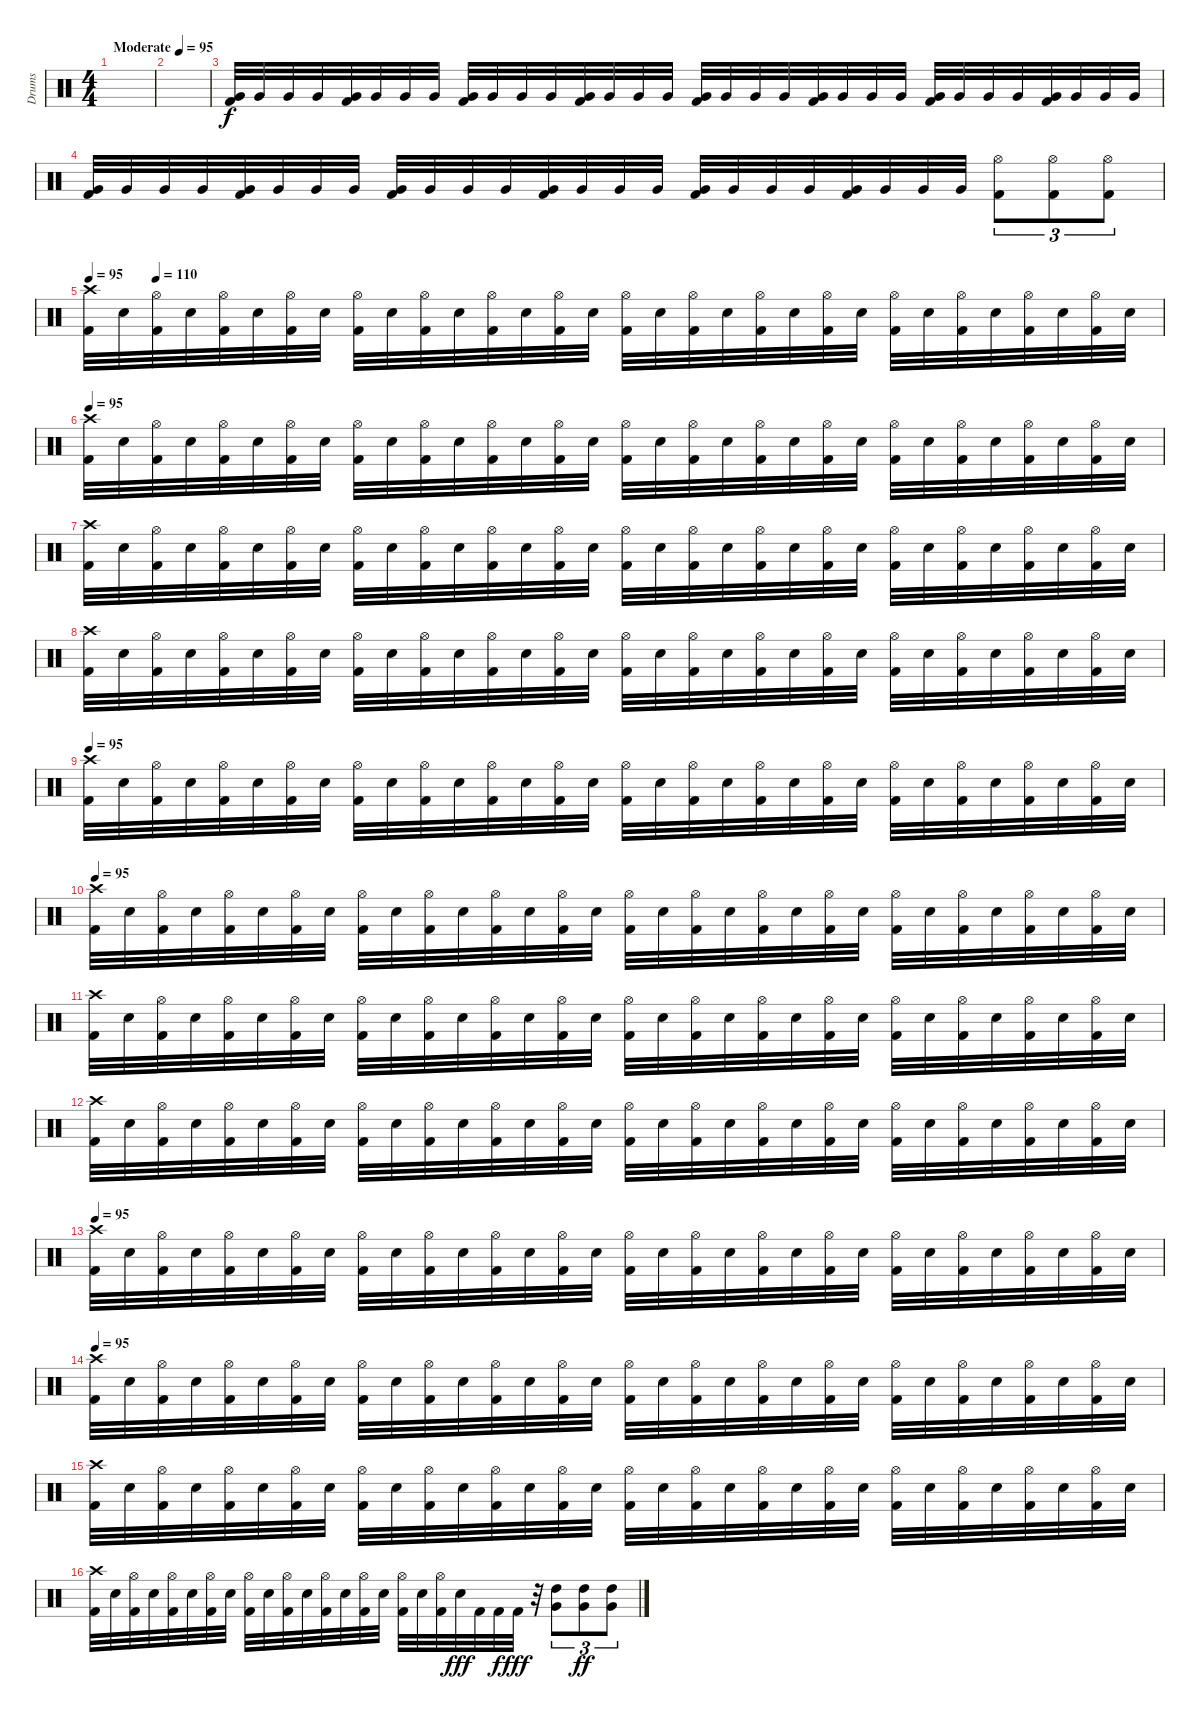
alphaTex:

\track ("Drums" "Drums") {instrument percussion}
\staff {score}
\articulation defaults
\ts (4 4)
\tempo (95 "Moderate")
\clef neutral
\ks c
|
|
("Very Low Tom (hit)" "Kick (hit) 2").32 "Very Low Tom (hit)".32 "Very Low Tom (hit)".32 "Very Low Tom (hit)".32 ("Very Low Tom (hit)" "Kick (hit) 2").32 "Very Low Tom (hit)".32 "Very Low Tom (hit)".32 "Very Low Tom (hit)".32 ("Very Low Tom (hit)" "Kick (hit) 2").32 "Very Low Tom (hit)".32 "Very Low Tom (hit)".32 "Very Low Tom (hit)".32 ("Very Low Tom (hit)" "Kick (hit) 2").32 "Very Low Tom (hit)".32 "Very Low Tom (hit)".32 "Very Low Tom (hit)".32 ("Very Low Tom (hit)" "Kick (hit) 2").32 "Very Low Tom (hit)".32 "Very Low Tom (hit)".32 "Very Low Tom (hit)".32 ("Very Low Tom (hit)" "Kick (hit) 2").32 "Very Low Tom (hit)".32 "Very Low Tom (hit)".32 "Very Low Tom (hit)".32 ("Very Low Tom (hit)" "Kick (hit) 2").32 "Very Low Tom (hit)".32 "Very Low Tom (hit)".32 "Very Low Tom (hit)".32 ("Very Low Tom (hit)" "Kick (hit) 2").32 "Very Low Tom (hit)".32 "Very Low Tom (hit)".32 "Very Low Tom (hit)".32 |
("Very Low Tom (hit)" "Kick (hit) 2").32 "Very Low Tom (hit)".32 "Very Low Tom (hit)".32 "Very Low Tom (hit)".32 ("Very Low Tom (hit)" "Kick (hit) 2").32 "Very Low Tom (hit)".32 "Very Low Tom (hit)".32 "Very Low Tom (hit)".32 ("Very Low Tom (hit)" "Kick (hit) 2").32 "Very Low Tom (hit)".32 "Very Low Tom (hit)".32 "Very Low Tom (hit)".32 ("Very Low Tom (hit)" "Kick (hit) 2").32 "Very Low Tom (hit)".32 "Very Low Tom (hit)".32 "Very Low Tom (hit)".32 ("Very Low Tom (hit)" "Kick (hit) 2").32 "Very Low Tom (hit)".32 "Very Low Tom (hit)".32 "Very Low Tom (hit)".32 ("Very Low Tom (hit)" "Kick (hit) 2").32 "Very Low Tom (hit)".32 "Very Low Tom (hit)".32 "Very Low Tom (hit)".32 ("Hi-Hat (open)" "Kick (hit) 2").8{tu (3 2)} ("Hi-Hat (open)" "Kick (hit) 2").8{tu (3 2)} ("Hi-Hat (open)" "Kick (hit) 2").8{tu (3 2)} |
\tempo 95
\tempo (110 0.0625)
("Crash high (hit)" "Kick (hit) 2").32{dy f} "Snare (hit) 2".32 ("Hi-Hat (open)" "Kick (hit) 2").32 "Snare (hit) 2".32 ("Hi-Hat (open)" "Kick (hit) 2").32 "Snare (hit) 2".32 ("Hi-Hat (open)" "Kick (hit) 2").32 "Snare (hit) 2".32 ("Hi-Hat (open)" "Kick (hit) 2").32 "Snare (hit) 2".32 ("Hi-Hat (open)" "Kick (hit) 2").32 "Snare (hit) 2".32 ("Hi-Hat (open)" "Kick (hit) 2").32 "Snare (hit) 2".32 ("Hi-Hat (open)" "Kick (hit) 2").32 "Snare (hit) 2".32 ("Hi-Hat (open)" "Kick (hit) 2").32 "Snare (hit) 2".32 ("Hi-Hat (open)" "Kick (hit) 2").32 "Snare (hit) 2".32 ("Hi-Hat (open)" "Kick (hit) 2").32 "Snare (hit) 2".32 ("Hi-Hat (open)" "Kick (hit) 2").32 "Snare (hit) 2".32 ("Hi-Hat (open)" "Kick (hit) 2").32 "Snare (hit) 2".32 ("Hi-Hat (open)" "Kick (hit) 2").32 "Snare (hit) 2".32 ("Hi-Hat (open)" "Kick (hit) 2").32 "Snare (hit) 2".32 ("Hi-Hat (open)" "Kick (hit) 2").32 "Snare (hit) 2".32 |
\tempo 95
("Crash high (hit)" "Kick (hit) 2").32 "Snare (hit) 2".32 ("Hi-Hat (open)" "Kick (hit) 2").32 "Snare (hit) 2".32 ("Hi-Hat (open)" "Kick (hit) 2").32 "Snare (hit) 2".32 ("Hi-Hat (open)" "Kick (hit) 2").32 "Snare (hit) 2".32 ("Hi-Hat (open)" "Kick (hit) 2").32 "Snare (hit) 2".32 ("Hi-Hat (open)" "Kick (hit) 2").32 "Snare (hit) 2".32 ("Hi-Hat (open)" "Kick (hit) 2").32 "Snare (hit) 2".32 ("Hi-Hat (open)" "Kick (hit) 2").32 "Snare (hit) 2".32 ("Hi-Hat (open)" "Kick (hit) 2").32 "Snare (hit) 2".32 ("Hi-Hat (open)" "Kick (hit) 2").32 "Snare (hit) 2".32 ("Hi-Hat (open)" "Kick (hit) 2").32 "Snare (hit) 2".32 ("Hi-Hat (open)" "Kick (hit) 2").32 "Snare (hit) 2".32 ("Hi-Hat (open)" "Kick (hit) 2").32 "Snare (hit) 2".32 ("Hi-Hat (open)" "Kick (hit) 2").32 "Snare (hit) 2".32 ("Hi-Hat (open)" "Kick (hit) 2").32 "Snare (hit) 2".32 ("Hi-Hat (open)" "Kick (hit) 2").32 "Snare (hit) 2".32 |
("Crash high (hit)" "Kick (hit) 2").32 "Snare (hit) 2".32 ("Hi-Hat (open)" "Kick (hit) 2").32 "Snare (hit) 2".32 ("Hi-Hat (open)" "Kick (hit) 2").32 "Snare (hit) 2".32 ("Hi-Hat (open)" "Kick (hit) 2").32 "Snare (hit) 2".32 ("Hi-Hat (open)" "Kick (hit) 2").32 "Snare (hit) 2".32 ("Hi-Hat (open)" "Kick (hit) 2").32 "Snare (hit) 2".32 ("Hi-Hat (open)" "Kick (hit) 2").32 "Snare (hit) 2".32 ("Hi-Hat (open)" "Kick (hit) 2").32 "Snare (hit) 2".32 ("Hi-Hat (open)" "Kick (hit) 2").32 "Snare (hit) 2".32 ("Hi-Hat (open)" "Kick (hit) 2").32 "Snare (hit) 2".32 ("Hi-Hat (open)" "Kick (hit) 2").32 "Snare (hit) 2".32 ("Hi-Hat (open)" "Kick (hit) 2").32 "Snare (hit) 2".32 ("Hi-Hat (open)" "Kick (hit) 2").32 "Snare (hit) 2".32 ("Hi-Hat (open)" "Kick (hit) 2").32 "Snare (hit) 2".32 ("Hi-Hat (open)" "Kick (hit) 2").32 "Snare (hit) 2".32 ("Hi-Hat (open)" "Kick (hit) 2").32 "Snare (hit) 2".32 |
("Crash high (hit)" "Kick (hit) 2").32 "Snare (hit) 2".32 ("Hi-Hat (open)" "Kick (hit) 2").32 "Snare (hit) 2".32 ("Hi-Hat (open)" "Kick (hit) 2").32 "Snare (hit) 2".32 ("Hi-Hat (open)" "Kick (hit) 2").32 "Snare (hit) 2".32 ("Hi-Hat (open)" "Kick (hit) 2").32 "Snare (hit) 2".32 ("Hi-Hat (open)" "Kick (hit) 2").32 "Snare (hit) 2".32 ("Hi-Hat (open)" "Kick (hit) 2").32 "Snare (hit) 2".32 ("Hi-Hat (open)" "Kick (hit) 2").32 "Snare (hit) 2".32 ("Hi-Hat (open)" "Kick (hit) 2").32 "Snare (hit) 2".32 ("Hi-Hat (open)" "Kick (hit) 2").32 "Snare (hit) 2".32 ("Hi-Hat (open)" "Kick (hit) 2").32 "Snare (hit) 2".32 ("Hi-Hat (open)" "Kick (hit) 2").32 "Snare (hit) 2".32 ("Hi-Hat (open)" "Kick (hit) 2").32 "Snare (hit) 2".32 ("Hi-Hat (open)" "Kick (hit) 2").32 "Snare (hit) 2".32 ("Hi-Hat (open)" "Kick (hit) 2").32 "Snare (hit) 2".32 ("Hi-Hat (open)" "Kick (hit) 2").32 "Snare (hit) 2".32 |
\tempo 95
("Crash high (hit)" "Kick (hit) 2").32 "Snare (hit) 2".32 ("Hi-Hat (open)" "Kick (hit) 2").32 "Snare (hit) 2".32 ("Hi-Hat (open)" "Kick (hit) 2").32 "Snare (hit) 2".32 ("Hi-Hat (open)" "Kick (hit) 2").32 "Snare (hit) 2".32 ("Hi-Hat (open)" "Kick (hit) 2").32 "Snare (hit) 2".32 ("Hi-Hat (open)" "Kick (hit) 2").32 "Snare (hit) 2".32 ("Hi-Hat (open)" "Kick (hit) 2").32 "Snare (hit) 2".32 ("Hi-Hat (open)" "Kick (hit) 2").32 "Snare (hit) 2".32 ("Hi-Hat (open)" "Kick (hit) 2").32 "Snare (hit) 2".32 ("Hi-Hat (open)" "Kick (hit) 2").32 "Snare (hit) 2".32 ("Hi-Hat (open)" "Kick (hit) 2").32 "Snare (hit) 2".32 ("Hi-Hat (open)" "Kick (hit) 2").32 "Snare (hit) 2".32 ("Hi-Hat (open)" "Kick (hit) 2").32 "Snare (hit) 2".32 ("Hi-Hat (open)" "Kick (hit) 2").32 "Snare (hit) 2".32 ("Hi-Hat (open)" "Kick (hit) 2").32 "Snare (hit) 2".32 ("Hi-Hat (open)" "Kick (hit) 2").32 "Snare (hit) 2".32 |
\tempo 95
("Crash high (hit)" "Kick (hit) 2").32 "Snare (hit) 2".32 ("Hi-Hat (open)" "Kick (hit) 2").32 "Snare (hit) 2".32 ("Hi-Hat (open)" "Kick (hit) 2").32 "Snare (hit) 2".32 ("Hi-Hat (open)" "Kick (hit) 2").32 "Snare (hit) 2".32 ("Hi-Hat (open)" "Kick (hit) 2").32 "Snare (hit) 2".32 ("Hi-Hat (open)" "Kick (hit) 2").32 "Snare (hit) 2".32 ("Hi-Hat (open)" "Kick (hit) 2").32 "Snare (hit) 2".32 ("Hi-Hat (open)" "Kick (hit) 2").32 "Snare (hit) 2".32 ("Hi-Hat (open)" "Kick (hit) 2").32 "Snare (hit) 2".32 ("Hi-Hat (open)" "Kick (hit) 2").32 "Snare (hit) 2".32 ("Hi-Hat (open)" "Kick (hit) 2").32 "Snare (hit) 2".32 ("Hi-Hat (open)" "Kick (hit) 2").32 "Snare (hit) 2".32 ("Hi-Hat (open)" "Kick (hit) 2").32 "Snare (hit) 2".32 ("Hi-Hat (open)" "Kick (hit) 2").32 "Snare (hit) 2".32 ("Hi-Hat (open)" "Kick (hit) 2").32 "Snare (hit) 2".32 ("Hi-Hat (open)" "Kick (hit) 2").32 "Snare (hit) 2".32 |
("Crash high (hit)" "Kick (hit) 2").32 "Snare (hit) 2".32 ("Hi-Hat (open)" "Kick (hit) 2").32 "Snare (hit) 2".32 ("Hi-Hat (open)" "Kick (hit) 2").32 "Snare (hit) 2".32 ("Hi-Hat (open)" "Kick (hit) 2").32 "Snare (hit) 2".32 ("Hi-Hat (open)" "Kick (hit) 2").32 "Snare (hit) 2".32 ("Hi-Hat (open)" "Kick (hit) 2").32 "Snare (hit) 2".32 ("Hi-Hat (open)" "Kick (hit) 2").32 "Snare (hit) 2".32 ("Hi-Hat (open)" "Kick (hit) 2").32 "Snare (hit) 2".32 ("Hi-Hat (open)" "Kick (hit) 2").32 "Snare (hit) 2".32 ("Hi-Hat (open)" "Kick (hit) 2").32 "Snare (hit) 2".32 ("Hi-Hat (open)" "Kick (hit) 2").32 "Snare (hit) 2".32 ("Hi-Hat (open)" "Kick (hit) 2").32 "Snare (hit) 2".32 ("Hi-Hat (open)" "Kick (hit) 2").32 "Snare (hit) 2".32 ("Hi-Hat (open)" "Kick (hit) 2").32 "Snare (hit) 2".32 ("Hi-Hat (open)" "Kick (hit) 2").32 "Snare (hit) 2".32 ("Hi-Hat (open)" "Kick (hit) 2").32 "Snare (hit) 2".32 |
("Crash high (hit)" "Kick (hit) 2").32 "Snare (hit) 2".32 ("Hi-Hat (open)" "Kick (hit) 2").32 "Snare (hit) 2".32 ("Hi-Hat (open)" "Kick (hit) 2").32 "Snare (hit) 2".32 ("Hi-Hat (open)" "Kick (hit) 2").32 "Snare (hit) 2".32 ("Hi-Hat (open)" "Kick (hit) 2").32 "Snare (hit) 2".32 ("Hi-Hat (open)" "Kick (hit) 2").32 "Snare (hit) 2".32 ("Hi-Hat (open)" "Kick (hit) 2").32 "Snare (hit) 2".32 ("Hi-Hat (open)" "Kick (hit) 2").32 "Snare (hit) 2".32 ("Hi-Hat (open)" "Kick (hit) 2").32 "Snare (hit) 2".32 ("Hi-Hat (open)" "Kick (hit) 2").32 "Snare (hit) 2".32 ("Hi-Hat (open)" "Kick (hit) 2").32 "Snare (hit) 2".32 ("Hi-Hat (open)" "Kick (hit) 2").32 "Snare (hit) 2".32 ("Hi-Hat (open)" "Kick (hit) 2").32 "Snare (hit) 2".32 ("Hi-Hat (open)" "Kick (hit) 2").32 "Snare (hit) 2".32 ("Hi-Hat (open)" "Kick (hit) 2").32 "Snare (hit) 2".32 ("Hi-Hat (open)" "Kick (hit) 2").32 "Snare (hit) 2".32 |
\tempo 95
("Crash high (hit)" "Kick (hit) 2").32 "Snare (hit) 2".32 ("Hi-Hat (open)" "Kick (hit) 2").32 "Snare (hit) 2".32 ("Hi-Hat (open)" "Kick (hit) 2").32 "Snare (hit) 2".32 ("Hi-Hat (open)" "Kick (hit) 2").32 "Snare (hit) 2".32 ("Hi-Hat (open)" "Kick (hit) 2").32 "Snare (hit) 2".32 ("Hi-Hat (open)" "Kick (hit) 2").32 "Snare (hit) 2".32 ("Hi-Hat (open)" "Kick (hit) 2").32 "Snare (hit) 2".32 ("Hi-Hat (open)" "Kick (hit) 2").32 "Snare (hit) 2".32 ("Hi-Hat (open)" "Kick (hit) 2").32 "Snare (hit) 2".32 ("Hi-Hat (open)" "Kick (hit) 2").32 "Snare (hit) 2".32 ("Hi-Hat (open)" "Kick (hit) 2").32 "Snare (hit) 2".32 ("Hi-Hat (open)" "Kick (hit) 2").32 "Snare (hit) 2".32 ("Hi-Hat (open)" "Kick (hit) 2").32 "Snare (hit) 2".32 ("Hi-Hat (open)" "Kick (hit) 2").32 "Snare (hit) 2".32 ("Hi-Hat (open)" "Kick (hit) 2").32 "Snare (hit) 2".32 ("Hi-Hat (open)" "Kick (hit) 2").32 "Snare (hit) 2".32 |
\tempo 95
("Crash high (hit)" "Kick (hit) 2").32 "Snare (hit) 2".32 ("Hi-Hat (open)" "Kick (hit) 2").32 "Snare (hit) 2".32 ("Hi-Hat (open)" "Kick (hit) 2").32 "Snare (hit) 2".32 ("Hi-Hat (open)" "Kick (hit) 2").32 "Snare (hit) 2".32 ("Hi-Hat (open)" "Kick (hit) 2").32 "Snare (hit) 2".32 ("Hi-Hat (open)" "Kick (hit) 2").32 "Snare (hit) 2".32 ("Hi-Hat (open)" "Kick (hit) 2").32 "Snare (hit) 2".32 ("Hi-Hat (open)" "Kick (hit) 2").32 "Snare (hit) 2".32 ("Hi-Hat (open)" "Kick (hit) 2").32 "Snare (hit) 2".32 ("Hi-Hat (open)" "Kick (hit) 2").32 "Snare (hit) 2".32 ("Hi-Hat (open)" "Kick (hit) 2").32 "Snare (hit) 2".32 ("Hi-Hat (open)" "Kick (hit) 2").32 "Snare (hit) 2".32 ("Hi-Hat (open)" "Kick (hit) 2").32 "Snare (hit) 2".32 ("Hi-Hat (open)" "Kick (hit) 2").32 "Snare (hit) 2".32 ("Hi-Hat (open)" "Kick (hit) 2").32 "Snare (hit) 2".32 ("Hi-Hat (open)" "Kick (hit) 2").32 "Snare (hit) 2".32 |
("Crash high (hit)" "Kick (hit) 2").32 "Snare (hit) 2".32 ("Hi-Hat (open)" "Kick (hit) 2").32 "Snare (hit) 2".32 ("Hi-Hat (open)" "Kick (hit) 2").32 "Snare (hit) 2".32 ("Hi-Hat (open)" "Kick (hit) 2").32 "Snare (hit) 2".32 ("Hi-Hat (open)" "Kick (hit) 2").32 "Snare (hit) 2".32 ("Hi-Hat (open)" "Kick (hit) 2").32 "Snare (hit) 2".32 ("Hi-Hat (open)" "Kick (hit) 2").32 "Snare (hit) 2".32 ("Hi-Hat (open)" "Kick (hit) 2").32 "Snare (hit) 2".32 ("Hi-Hat (open)" "Kick (hit) 2").32 "Snare (hit) 2".32 ("Hi-Hat (open)" "Kick (hit) 2").32 "Snare (hit) 2".32 ("Hi-Hat (open)" "Kick (hit) 2").32 "Snare (hit) 2".32 ("Hi-Hat (open)" "Kick (hit) 2").32 "Snare (hit) 2".32 ("Hi-Hat (open)" "Kick (hit) 2").32 "Snare (hit) 2".32 ("Hi-Hat (open)" "Kick (hit) 2").32 "Snare (hit) 2".32 ("Hi-Hat (open)" "Kick (hit) 2").32 "Snare (hit) 2".32 ("Hi-Hat (open)" "Kick (hit) 2").32 "Snare (hit) 2".32 |
("Crash high (hit)" "Kick (hit) 2").32 "Snare (hit) 2".32 ("Hi-Hat (open)" "Kick (hit) 2").32 "Snare (hit) 2".32 ("Hi-Hat (open)" "Kick (hit) 2").32 "Snare (hit) 2".32 ("Hi-Hat (open)" "Kick (hit) 2").32 "Snare (hit) 2".32 ("Hi-Hat (open)" "Kick (hit) 2").32 "Snare (hit) 2".32 ("Hi-Hat (open)" "Kick (hit) 2").32 "Snare (hit) 2".32 ("Hi-Hat (open)" "Kick (hit) 2").32 "Snare (hit) 2".32 ("Hi-Hat (open)" "Kick (hit) 2").32 "Snare (hit) 2".32 ("Hi-Hat (open)" "Kick (hit) 2").32 "Snare (hit) 2".32 ("Hi-Hat (open)" "Kick (hit) 2").32 "Snare (hit) 2".32{dy fff} "Kick (hit) 2".32 "Kick (hit) 2".32{dy f} "Kick (hit) 2".32{dy fff} r.32 ("High Tom (hit)" "Very Low Tom (hit)").8{tu (3 2)} ("High Tom (hit)" "Very Low Tom (hit)").8{tu (3 2) dy ff} ("High Tom (hit)" "Very Low Tom (hit)").8{tu (3 2)}
